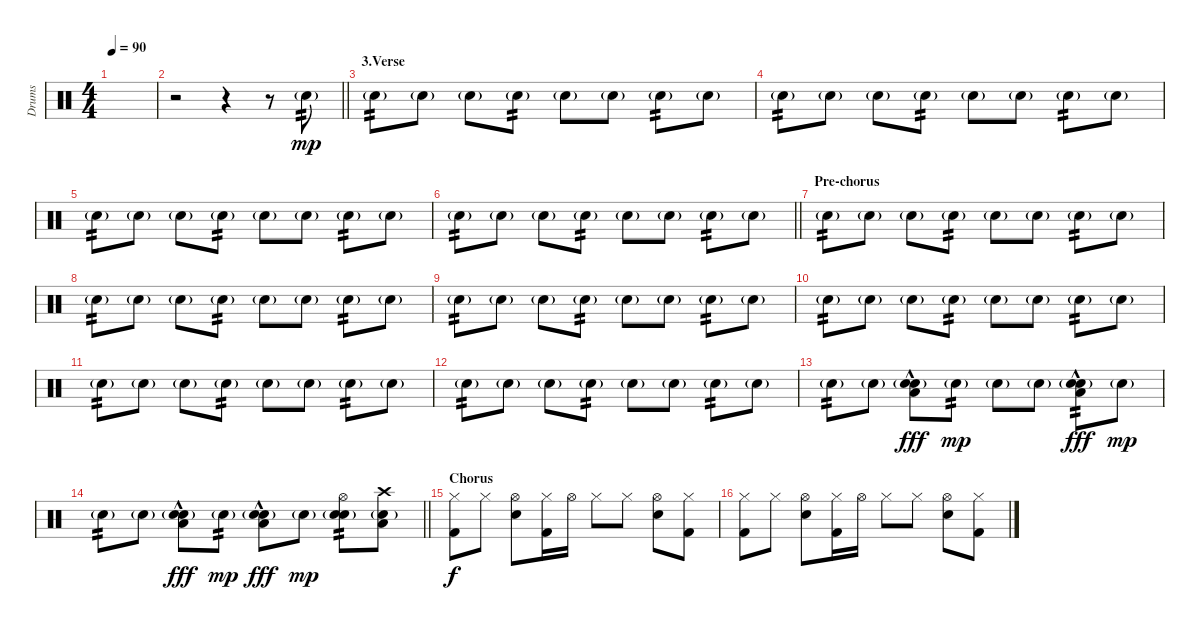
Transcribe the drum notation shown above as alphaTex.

\track ("Drums" "Drums") {instrument percussion}
\staff {score}
\articulation defaults
\ts (4 4)
\tempo 90
\clef neutral
\ks c
|
\barLineRight lightlight
r.2 r.4 r.8 "Electric Snare (hit)"{g}.8{tp 2 dy mp} |
\section ("" "3.Verse")
"Electric Snare (hit)"{g}.8{tp 2} "Electric Snare (hit)"{g}.8 "Electric Snare (hit)"{g}.8 "Electric Snare (hit)"{g}.8{tp 2} "Electric Snare (hit)"{g}.8 "Electric Snare (hit)"{g}.8 "Electric Snare (hit)"{g}.8{tp 2} "Electric Snare (hit)"{g}.8 |
"Electric Snare (hit)"{g}.8{tp 2} "Electric Snare (hit)"{g}.8 "Electric Snare (hit)"{g}.8 "Electric Snare (hit)"{g}.8{tp 2} "Electric Snare (hit)"{g}.8 "Electric Snare (hit)"{g}.8 "Electric Snare (hit)"{g}.8{tp 2} "Electric Snare (hit)"{g}.8 |
"Electric Snare (hit)"{g}.8{tp 2} "Electric Snare (hit)"{g}.8 "Electric Snare (hit)"{g}.8 "Electric Snare (hit)"{g}.8{tp 2} "Electric Snare (hit)"{g}.8 "Electric Snare (hit)"{g}.8 "Electric Snare (hit)"{g}.8{tp 2} "Electric Snare (hit)"{g}.8 |
\barLineRight lightlight "Electric Snare (hit)"{g}.8{tp 2} "Electric Snare (hit)"{g}.8 "Electric Snare (hit)"{g}.8 "Electric Snare (hit)"{g}.8{tp 2} "Electric Snare (hit)"{g}.8 "Electric Snare (hit)"{g}.8 "Electric Snare (hit)"{g}.8{tp 2} "Electric Snare (hit)"{g}.8
|
\section ("" "Pre-chorus")
"Electric Snare (hit)"{g}.8{tp 2} "Electric Snare (hit)"{g}.8 "Electric Snare (hit)"{g}.8 "Electric Snare (hit)"{g}.8{tp 2} "Electric Snare (hit)"{g}.8 "Electric Snare (hit)"{g}.8 "Electric Snare (hit)"{g}.8{tp 2} "Electric Snare (hit)"{g}.8 |
"Electric Snare (hit)"{g}.8{tp 2} "Electric Snare (hit)"{g}.8 "Electric Snare (hit)"{g}.8 "Electric Snare (hit)"{g}.8{tp 2} "Electric Snare (hit)"{g}.8 "Electric Snare (hit)"{g}.8 "Electric Snare (hit)"{g}.8{tp 2} "Electric Snare (hit)"{g}.8 |
"Electric Snare (hit)"{g}.8{tp 2} "Electric Snare (hit)"{g}.8 "Electric Snare (hit)"{g}.8 "Electric Snare (hit)"{g}.8{tp 2} "Electric Snare (hit)"{g}.8 "Electric Snare (hit)"{g}.8 "Electric Snare (hit)"{g}.8{tp 2} "Electric Snare (hit)"{g}.8 |
"Electric Snare (hit)"{g}.8{tp 2} "Electric Snare (hit)"{g}.8 "Electric Snare (hit)"{g}.8 "Electric Snare (hit)"{g}.8{tp 2} "Electric Snare (hit)"{g}.8 "Electric Snare (hit)"{g}.8 "Electric Snare (hit)"{g}.8{tp 2} "Electric Snare (hit)"{g}.8 |
"Electric Snare (hit)"{g}.8{tp 2} "Electric Snare (hit)"{g}.8 "Electric Snare (hit)"{g}.8 "Electric Snare (hit)"{g}.8{tp 2} "Electric Snare (hit)"{g}.8 "Electric Snare (hit)"{g}.8 "Electric Snare (hit)"{g}.8{tp 2} "Electric Snare (hit)"{g}.8 |
"Electric Snare (hit)"{g}.8{tp 2} "Electric Snare (hit)"{g}.8 "Electric Snare (hit)"{g}.8 "Electric Snare (hit)"{g}.8{tp 2} "Electric Snare (hit)"{g}.8 "Electric Snare (hit)"{g}.8 "Electric Snare (hit)"{g}.8{tp 2} "Electric Snare (hit)"{g}.8 |
"Electric Snare (hit)"{g}.8{tp 2} "Electric Snare (hit)"{g}.8 ("Electric Snare (hit)"{g} "Snare (hit) 2"{hac} "Low Tom (hit)"{hac}).8{dy fff} "Electric Snare (hit)"{g}.8{tp 2 dy mp} "Electric Snare (hit)"{g}.8 "Electric Snare (hit)"{g}.8 ("Electric Snare (hit)"{g} "Snare (hit) 2"{hac} "Low Tom (hit)"{hac}).8{tp 2 dy fff} "Electric Snare (hit)"{g}.8{dy mp} |
\barLineRight lightlight "Electric Snare (hit)"{g}.8{tp 2} "Electric Snare (hit)"{g}.8
("Electric Snare (hit)"{g} "Snare (hit) 2"{hac} "Low Tom (hit)"{hac}).8{dy fff} "Electric Snare (hit)"{g}.8{tp 2 dy mp} ("Electric Snare (hit)"{g} "Snare (hit) 2"{hac} "Low Tom (hit)"{hac}).8{dy fff} "Electric Snare (hit)"{g}.8{dy mp} ("Electric Snare (hit)"{g} "Hi-Hat (open)" "Snare (hit) 2").8{tp 2} ("Electric Snare (hit)"{g} "Crash high (hit)" "Low Tom (hit)").8 |
\section ("" "Chorus")
("Kick (hit) 2" "Hi-Hat (closed)").8{dy f} "Hi-Hat (closed)".8 ("Snare (hit) 2" "Hi-Hat (open)").8 ("Kick (hit) 2" "Hi-Hat (closed)").16 "Hi-Hat (open)".16 "Hi-Hat (closed)".8 "Hi-Hat (closed)".8 ("Snare (hit) 2" "Hi-Hat (open)").8 ("Kick (hit) 2" "Hi-Hat (closed)").8 |
("Kick (hit) 2" "Hi-Hat (closed)").8 "Hi-Hat (closed)".8 ("Snare (hit) 2" "Hi-Hat (open)").8 ("Kick (hit) 2" "Hi-Hat (closed)").16 "Hi-Hat (open)".16 "Hi-Hat (closed)".8 "Hi-Hat (closed)".8 ("Snare (hit) 2" "Hi-Hat (open)").8 ("Kick (hit) 2" "Hi-Hat (closed)").8
